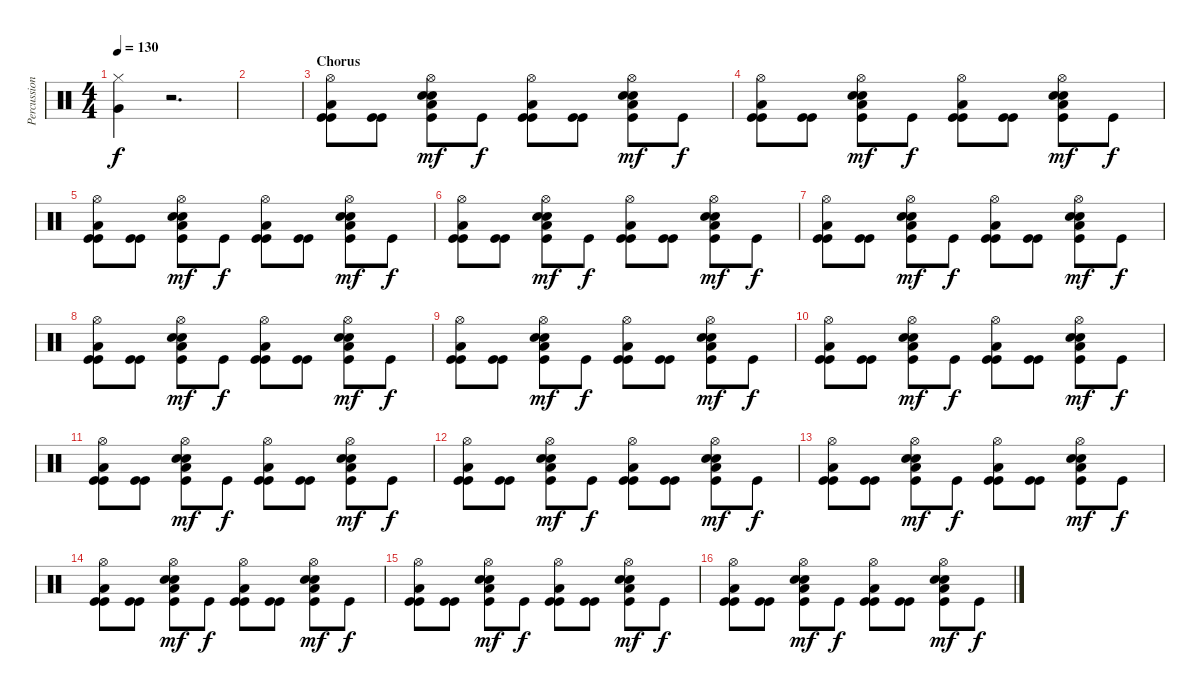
\track ("Percussion" "Percussion") {instrument percussion}
\staff {score}
\articulation defaults
\ts (4 4)
\tempo 130
\clef neutral
\ks c
("Hi-Hat (closed)" "Very Low Tom (hit)").4{dy f} r.2{d} |
|
\section ("" "Chorus")
("Hi-Hat (open)" "Kick (hit)" "Kick (hit)" "Low Floor Tom (hit)").8 ("Kick (hit)" "Kick (hit)").8 ("Hi-Hat (open)" "Snare (hit) 2" "Snare (hit) 2" "Kick (hit)" "Low Floor Tom (hit)").8{dy mf} "Kick (hit)".8{dy f} ("Hi-Hat (open)" "Kick (hit)" "Kick (hit)" "Low Floor Tom (hit)").8 ("Kick (hit)" "Kick (hit)").8 ("Hi-Hat (open)" "Snare (hit) 2" "Snare (hit) 2" "Kick (hit)" "Low Floor Tom (hit)").8{dy mf} "Kick (hit)".8{dy f} |
("Hi-Hat (open)" "Kick (hit)" "Kick (hit)" "Low Floor Tom (hit)").8 ("Kick (hit)" "Kick (hit)").8 ("Hi-Hat (open)" "Snare (hit) 2" "Snare (hit) 2" "Kick (hit)" "Low Floor Tom (hit)").8{dy mf} "Kick (hit)".8{dy f} ("Hi-Hat (open)" "Kick (hit)" "Kick (hit)" "Low Floor Tom (hit)").8 ("Kick (hit)" "Kick (hit)").8 ("Hi-Hat (open)" "Snare (hit) 2" "Snare (hit) 2" "Kick (hit)" "Low Floor Tom (hit)").8{dy mf} "Kick (hit)".8{dy f} |
("Hi-Hat (open)" "Kick (hit)" "Kick (hit)" "Low Floor Tom (hit)").8 ("Kick (hit)" "Kick (hit)").8 ("Hi-Hat (open)" "Snare (hit) 2" "Snare (hit) 2" "Kick (hit)" "Low Floor Tom (hit)").8{dy mf} "Kick (hit)".8{dy f} ("Hi-Hat (open)" "Kick (hit)" "Kick (hit)" "Low Floor Tom (hit)").8 ("Kick (hit)" "Kick (hit)").8 ("Hi-Hat (open)" "Snare (hit) 2" "Snare (hit) 2" "Kick (hit)" "Low Floor Tom (hit)").8{dy mf} "Kick (hit)".8{dy f} |
("Hi-Hat (open)" "Kick (hit)" "Kick (hit)" "Low Floor Tom (hit)").8 ("Kick (hit)" "Kick (hit)").8 ("Hi-Hat (open)" "Snare (hit) 2" "Snare (hit) 2" "Kick (hit)" "Low Floor Tom (hit)").8{dy mf} "Kick (hit)".8{dy f} ("Hi-Hat (open)" "Kick (hit)" "Kick (hit)" "Low Floor Tom (hit)").8 ("Kick (hit)" "Kick (hit)").8 ("Hi-Hat (open)" "Snare (hit) 2" "Snare (hit) 2" "Kick (hit)" "Low Floor Tom (hit)").8{dy mf} "Kick (hit)".8{dy f} |
("Hi-Hat (open)" "Kick (hit)" "Kick (hit)" "Low Floor Tom (hit)").8 ("Kick (hit)" "Kick (hit)").8 ("Hi-Hat (open)" "Snare (hit) 2" "Snare (hit) 2" "Kick (hit)" "Low Floor Tom (hit)").8{dy mf} "Kick (hit)".8{dy f} ("Hi-Hat (open)" "Kick (hit)" "Kick (hit)" "Low Floor Tom (hit)").8 ("Kick (hit)" "Kick (hit)").8 ("Hi-Hat (open)" "Snare (hit) 2" "Snare (hit) 2" "Kick (hit)" "Low Floor Tom (hit)").8{dy mf} "Kick (hit)".8{dy f} |
("Hi-Hat (open)" "Kick (hit)" "Kick (hit)" "Low Floor Tom (hit)").8 ("Kick (hit)" "Kick (hit)").8 ("Hi-Hat (open)" "Snare (hit) 2" "Snare (hit) 2" "Kick (hit)" "Low Floor Tom (hit)").8{dy mf} "Kick (hit)".8{dy f} ("Hi-Hat (open)" "Kick (hit)" "Kick (hit)" "Low Floor Tom (hit)").8 ("Kick (hit)" "Kick (hit)").8 ("Hi-Hat (open)" "Snare (hit) 2" "Snare (hit) 2" "Kick (hit)" "Low Floor Tom (hit)").8{dy mf} "Kick (hit)".8{dy f} |
("Hi-Hat (open)" "Kick (hit)" "Kick (hit)" "Low Floor Tom (hit)").8 ("Kick (hit)" "Kick (hit)").8 ("Hi-Hat (open)" "Snare (hit) 2" "Snare (hit) 2" "Kick (hit)" "Low Floor Tom (hit)").8{dy mf} "Kick (hit)".8{dy f} ("Hi-Hat (open)" "Kick (hit)" "Kick (hit)" "Low Floor Tom (hit)").8 ("Kick (hit)" "Kick (hit)").8 ("Hi-Hat (open)" "Snare (hit) 2" "Snare (hit) 2" "Kick (hit)" "Low Floor Tom (hit)").8{dy mf} "Kick (hit)".8{dy f} |
("Hi-Hat (open)" "Kick (hit)" "Kick (hit)" "Low Floor Tom (hit)").8 ("Kick (hit)" "Kick (hit)").8 ("Hi-Hat (open)" "Snare (hit) 2" "Snare (hit) 2" "Kick (hit)" "Low Floor Tom (hit)").8{dy mf} "Kick (hit)".8{dy f} ("Hi-Hat (open)" "Kick (hit)" "Kick (hit)" "Low Floor Tom (hit)").8 ("Kick (hit)" "Kick (hit)").8 ("Hi-Hat (open)" "Snare (hit) 2" "Snare (hit) 2" "Kick (hit)" "Low Floor Tom (hit)").8{dy mf} "Kick (hit)".8{dy f} |
("Hi-Hat (open)" "Kick (hit)" "Kick (hit)" "Low Floor Tom (hit)").8 ("Kick (hit)" "Kick (hit)").8 ("Hi-Hat (open)" "Snare (hit) 2" "Snare (hit) 2" "Kick (hit)" "Low Floor Tom (hit)").8{dy mf} "Kick (hit)".8{dy f} ("Hi-Hat (open)" "Kick (hit)" "Kick (hit)" "Low Floor Tom (hit)").8 ("Kick (hit)" "Kick (hit)").8 ("Hi-Hat (open)" "Snare (hit) 2" "Snare (hit) 2" "Kick (hit)" "Low Floor Tom (hit)").8{dy mf} "Kick (hit)".8{dy f} |
("Hi-Hat (open)" "Kick (hit)" "Kick (hit)" "Low Floor Tom (hit)").8 ("Kick (hit)" "Kick (hit)").8 ("Hi-Hat (open)" "Snare (hit) 2" "Snare (hit) 2" "Kick (hit)" "Low Floor Tom (hit)").8{dy mf} "Kick (hit)".8{dy f} ("Hi-Hat (open)" "Kick (hit)" "Kick (hit)" "Low Floor Tom (hit)").8 ("Kick (hit)" "Kick (hit)").8 ("Hi-Hat (open)" "Snare (hit) 2" "Snare (hit) 2" "Kick (hit)" "Low Floor Tom (hit)").8{dy mf} "Kick (hit)".8{dy f} |
("Hi-Hat (open)" "Kick (hit)" "Kick (hit)" "Low Floor Tom (hit)").8 ("Kick (hit)" "Kick (hit)").8 ("Hi-Hat (open)" "Snare (hit) 2" "Snare (hit) 2" "Kick (hit)" "Low Floor Tom (hit)").8{dy mf} "Kick (hit)".8{dy f} ("Hi-Hat (open)" "Kick (hit)" "Kick (hit)" "Low Floor Tom (hit)").8 ("Kick (hit)" "Kick (hit)").8 ("Hi-Hat (open)" "Snare (hit) 2" "Snare (hit) 2" "Kick (hit)" "Low Floor Tom (hit)").8{dy mf} "Kick (hit)".8{dy f} |
("Hi-Hat (open)" "Kick (hit)" "Kick (hit)" "Low Floor Tom (hit)").8 ("Kick (hit)" "Kick (hit)").8 ("Hi-Hat (open)" "Snare (hit) 2" "Snare (hit) 2" "Kick (hit)" "Low Floor Tom (hit)").8{dy mf} "Kick (hit)".8{dy f} ("Hi-Hat (open)" "Kick (hit)" "Kick (hit)" "Low Floor Tom (hit)").8 ("Kick (hit)" "Kick (hit)").8 ("Hi-Hat (open)" "Snare (hit) 2" "Snare (hit) 2" "Kick (hit)" "Low Floor Tom (hit)").8{dy mf} "Kick (hit)".8{dy f} |
("Hi-Hat (open)" "Kick (hit)" "Kick (hit)" "Low Floor Tom (hit)").8 ("Kick (hit)" "Kick (hit)").8 ("Hi-Hat (open)" "Snare (hit) 2" "Snare (hit) 2" "Kick (hit)" "Low Floor Tom (hit)").8{dy mf} "Kick (hit)".8{dy f} ("Hi-Hat (open)" "Kick (hit)" "Kick (hit)" "Low Floor Tom (hit)").8 ("Kick (hit)" "Kick (hit)").8 ("Hi-Hat (open)" "Snare (hit) 2" "Snare (hit) 2" "Kick (hit)" "Low Floor Tom (hit)").8{dy mf} "Kick (hit)".8{dy f} |
("Hi-Hat (open)" "Kick (hit)" "Kick (hit)" "Low Floor Tom (hit)").8 ("Kick (hit)" "Kick (hit)").8 ("Hi-Hat (open)" "Snare (hit) 2" "Snare (hit) 2" "Kick (hit)" "Low Floor Tom (hit)").8{dy mf} "Kick (hit)".8{dy f} ("Hi-Hat (open)" "Kick (hit)" "Kick (hit)" "Low Floor Tom (hit)").8 ("Kick (hit)" "Kick (hit)").8 ("Hi-Hat (open)" "Snare (hit) 2" "Snare (hit) 2" "Kick (hit)" "Low Floor Tom (hit)").8{dy mf} "Kick (hit)".8{dy f}
